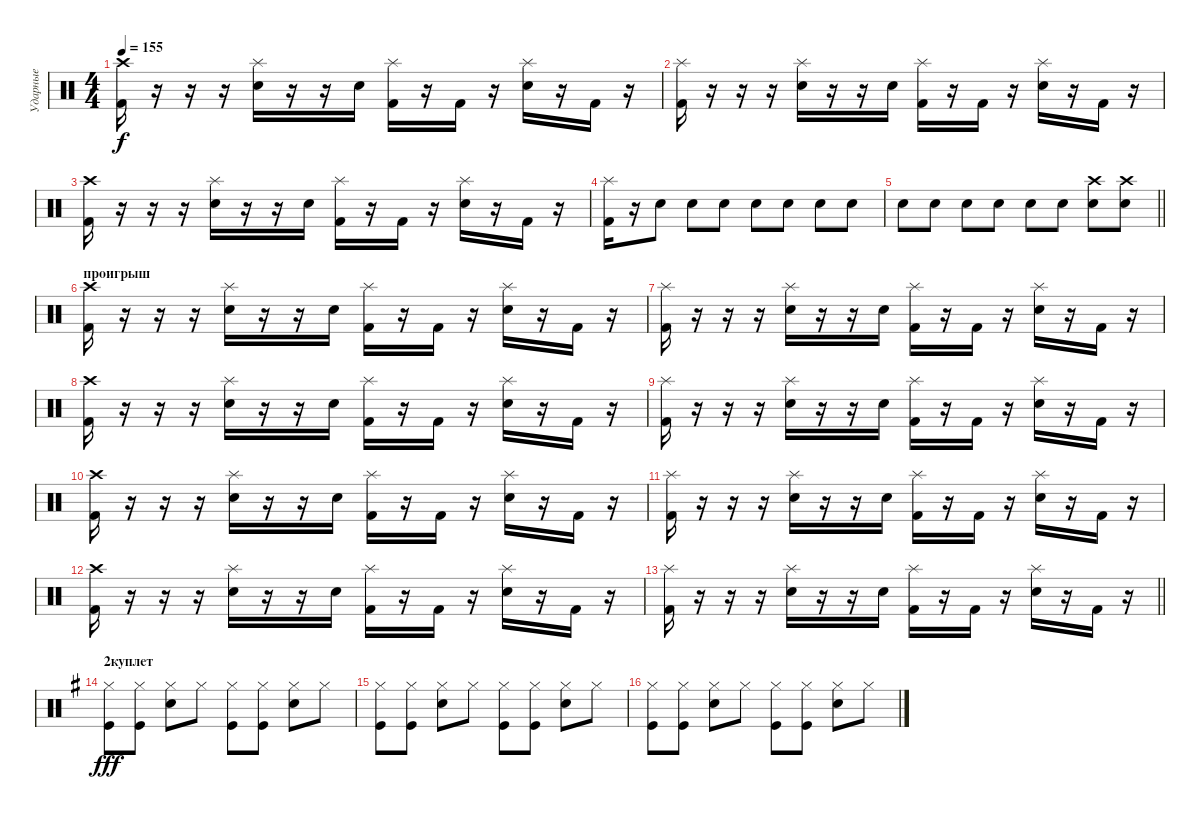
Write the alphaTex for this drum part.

\track ("Ударные" "Ударные") {instrument percussion}
\staff {score}
\articulation defaults
\ts (4 4)
\tempo 155
\clef neutral
\ks c
("Crash high (hit)" "Kick (hit) 2").16{dy f} r.16 r.16 r.16 ("Splash (hit)" "Electric Snare (hit)").16 r.16 r.16 "Electric Snare (hit)".16 ("Splash (hit)" "Kick (hit) 2").16 r.16 "Kick (hit) 2".16 r.16 ("Splash (hit)" "Electric Snare (hit)").16 r.16 "Kick (hit) 2".16 r.16 |
("Splash (hit)" "Kick (hit) 2").16 r.16 r.16 r.16 ("Splash (hit)" "Electric Snare (hit)").16 r.16 r.16 "Electric Snare (hit)".16 ("Splash (hit)" "Kick (hit) 2").16 r.16 "Kick (hit) 2".16 r.16 ("Splash (hit)" "Electric Snare (hit)").16 r.16 "Kick (hit) 2".16 r.16 |
("Crash high (hit)" "Kick (hit) 2").16 r.16 r.16 r.16 ("Splash (hit)" "Electric Snare (hit)").16 r.16 r.16 "Electric Snare (hit)".16 ("Splash (hit)" "Kick (hit) 2").16 r.16 "Kick (hit) 2".16 r.16 ("Splash (hit)" "Electric Snare (hit)").16 r.16 "Kick (hit) 2".16 r.16 |
("Splash (hit)" "Kick (hit) 2").16 r.16 "Electric Snare (hit)".8 "Electric Snare (hit)".8 "Electric Snare (hit)".8 "Electric Snare (hit)".8 "Electric Snare (hit)".8 "Electric Snare (hit)".8 "Electric Snare (hit)".8 |
\barLineRight lightlight "Electric Snare (hit)".8 "Electric Snare (hit)".8 "Electric Snare (hit)".8 "Electric Snare (hit)".8 "Electric Snare (hit)".8 "Electric Snare (hit)".8
("Electric Snare (hit)" "Crash high (hit)").8 ("Electric Snare (hit)" "Crash high (hit)").8 |
\section ("" "проигрыш")
("Crash high (hit)" "Kick (hit) 2").16 r.16 r.16 r.16 ("Splash (hit)" "Electric Snare (hit)").16 r.16 r.16 "Electric Snare (hit)".16 ("Splash (hit)" "Kick (hit) 2").16 r.16 "Kick (hit) 2".16 r.16 ("Splash (hit)" "Electric Snare (hit)").16 r.16 "Kick (hit) 2".16 r.16 |
("Splash (hit)" "Kick (hit) 2").16 r.16 r.16 r.16 ("Splash (hit)" "Electric Snare (hit)").16 r.16 r.16 "Electric Snare (hit)".16 ("Splash (hit)" "Kick (hit) 2").16 r.16 "Kick (hit) 2".16 r.16 ("Splash (hit)" "Electric Snare (hit)").16 r.16 "Kick (hit) 2".16 r.16 |
("Crash high (hit)" "Kick (hit) 2").16 r.16 r.16 r.16 ("Splash (hit)" "Electric Snare (hit)").16 r.16 r.16 "Electric Snare (hit)".16 ("Splash (hit)" "Kick (hit) 2").16 r.16 "Kick (hit) 2".16 r.16 ("Splash (hit)" "Electric Snare (hit)").16 r.16 "Kick (hit) 2".16 r.16 |
("Splash (hit)" "Kick (hit) 2").16 r.16 r.16 r.16 ("Splash (hit)" "Electric Snare (hit)").16 r.16 r.16 "Electric Snare (hit)".16 ("Splash (hit)" "Kick (hit) 2").16 r.16 "Kick (hit) 2".16 r.16 ("Splash (hit)" "Electric Snare (hit)").16 r.16 "Kick (hit) 2".16 r.16 |
("Crash high (hit)" "Kick (hit) 2").16 r.16 r.16 r.16 ("Splash (hit)" "Electric Snare (hit)").16 r.16 r.16 "Electric Snare (hit)".16 ("Splash (hit)" "Kick (hit) 2").16 r.16 "Kick (hit) 2".16 r.16 ("Splash (hit)" "Electric Snare (hit)").16 r.16 "Kick (hit) 2".16 r.16 |
("Splash (hit)" "Kick (hit) 2").16 r.16 r.16 r.16 ("Splash (hit)" "Electric Snare (hit)").16 r.16 r.16 "Electric Snare (hit)".16 ("Splash (hit)" "Kick (hit) 2").16 r.16 "Kick (hit) 2".16 r.16 ("Splash (hit)" "Electric Snare (hit)").16 r.16 "Kick (hit) 2".16 r.16 |
("Crash high (hit)" "Kick (hit) 2").16 r.16 r.16 r.16 ("Splash (hit)" "Electric Snare (hit)").16 r.16 r.16 "Electric Snare (hit)".16 ("Splash (hit)" "Kick (hit) 2").16 r.16 "Kick (hit) 2".16 r.16 ("Splash (hit)" "Electric Snare (hit)").16 r.16 "Kick (hit) 2".16 r.16 |
\barLineRight lightlight
("Splash (hit)" "Kick (hit) 2").16 r.16 r.16 r.16 ("Splash (hit)" "Electric Snare (hit)").16 r.16 r.16 "Electric Snare (hit)".16 ("Splash (hit)" "Kick (hit) 2").16 r.16 "Kick (hit) 2".16 r.16 ("Splash (hit)" "Electric Snare (hit)").16 r.16 "Kick (hit) 2".16 r.16 |
\section ("" "2куплет ")
\ks g
("Hi-Hat (closed)" "Kick (hit)").8{dy fff} ("Hi-Hat (closed)" "Kick (hit)").8 ("Hi-Hat (closed)" "Snare (hit) 2").8 "Hi-Hat (closed)".8 ("Hi-Hat (closed)" "Kick (hit)").8 ("Hi-Hat (closed)" "Kick (hit)").8 ("Hi-Hat (closed)" "Snare (hit) 2").8 "Hi-Hat (closed)".8 |
("Hi-Hat (closed)" "Kick (hit)").8 ("Hi-Hat (closed)" "Kick (hit)").8 ("Hi-Hat (closed)" "Snare (hit) 2").8 "Hi-Hat (closed)".8 ("Hi-Hat (closed)" "Kick (hit)").8 ("Hi-Hat (closed)" "Kick (hit)").8 ("Hi-Hat (closed)" "Snare (hit) 2").8 "Hi-Hat (closed)".8 |
("Hi-Hat (closed)" "Kick (hit)").8 ("Hi-Hat (closed)" "Kick (hit)").8 ("Hi-Hat (closed)" "Snare (hit) 2").8 "Hi-Hat (closed)".8 ("Hi-Hat (closed)" "Kick (hit)").8 ("Hi-Hat (closed)" "Kick (hit)").8 ("Hi-Hat (closed)" "Snare (hit) 2").8 "Hi-Hat (closed)".8
